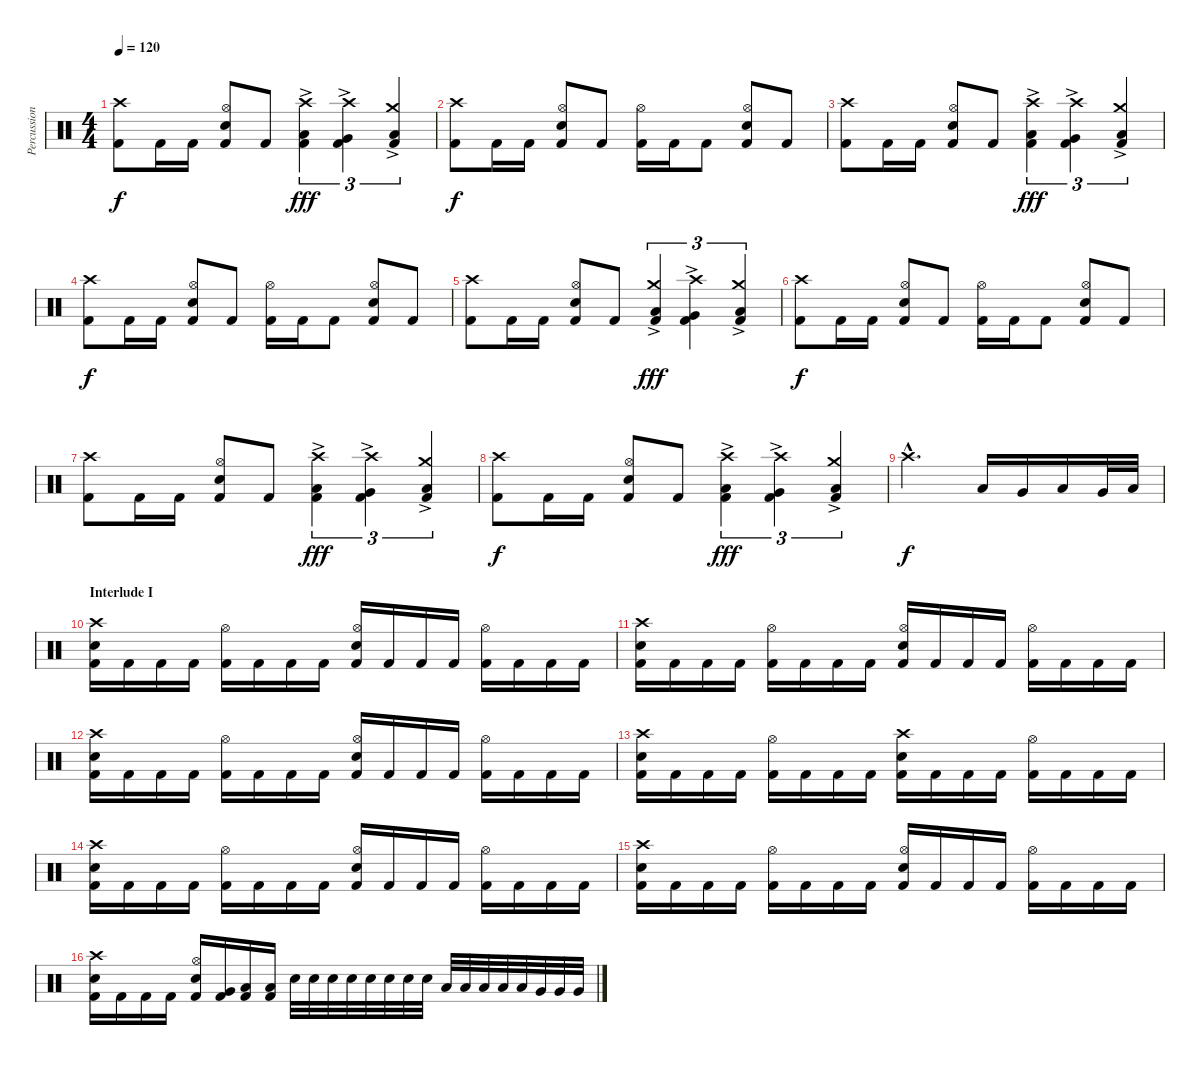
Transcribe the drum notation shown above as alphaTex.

\track ("Percussion" "Percussion") {instrument percussion}
\staff {score}
\articulation defaults
\ts (4 4)
\tempo 120
\clef neutral
\ks c
("Crash high (hit)" "Kick (hit) 2").8{dy f} "Kick (hit) 2".16 "Kick (hit) 2".16 ("Hi-Hat (open)" "Electric Snare (hit)" "Kick (hit) 2").8 "Kick (hit) 2".8 ("Crash high (hit)" "Low Floor Tom (hit)"{ac} "Kick (hit) 2").4{tu (3 2) dy fff} ("Crash high (hit)" "Very Low Tom (hit)"{ac} "Kick (hit) 2").4{tu (3 2)} ("Crash medium (hit)" "Low Tom (hit)"{ac} "Kick (hit) 2").4{tu (3 2)} |
("Crash high (hit)" "Kick (hit) 2").8{dy f} "Kick (hit) 2".16 "Kick (hit) 2".16 ("Hi-Hat (open)" "Electric Snare (hit)" "Kick (hit) 2").8 "Kick (hit) 2".8 ("Hi-Hat (open)" "Kick (hit) 2").16 "Kick (hit) 2".16 "Kick (hit) 2".8 ("Hi-Hat (open)" "Electric Snare (hit)" "Kick (hit) 2").8 "Kick (hit) 2".8 |
("Crash high (hit)" "Kick (hit) 2").8 "Kick (hit) 2".16 "Kick (hit) 2".16 ("Hi-Hat (open)" "Electric Snare (hit)" "Kick (hit) 2").8 "Kick (hit) 2".8 ("Crash high (hit)" "Low Floor Tom (hit)"{ac} "Kick (hit) 2").4{tu (3 2) dy fff} ("Crash high (hit)" "Very Low Tom (hit)"{ac} "Kick (hit) 2").4{tu (3 2)} ("Crash medium (hit)" "Low Tom (hit)"{ac} "Kick (hit) 2").4{tu (3 2)} |
("Crash high (hit)" "Kick (hit) 2").8{dy f} "Kick (hit) 2".16 "Kick (hit) 2".16 ("Hi-Hat (open)" "Electric Snare (hit)" "Kick (hit) 2").8 "Kick (hit) 2".8 ("Hi-Hat (open)" "Kick (hit) 2").16 "Kick (hit) 2".16 "Kick (hit) 2".8 ("Hi-Hat (open)" "Electric Snare (hit)" "Kick (hit) 2").8 "Kick (hit) 2".8 |
("Crash high (hit)" "Kick (hit) 2").8 "Kick (hit) 2".16 "Kick (hit) 2".16 ("Hi-Hat (open)" "Electric Snare (hit)" "Kick (hit) 2").8 "Kick (hit) 2".8 ("Crash medium (hit)" "Low Tom (hit)"{ac} "Kick (hit) 2").4{tu (3 2) dy fff} ("Crash high (hit)" "Very Low Tom (hit)"{ac} "Kick (hit) 2").4{tu (3 2)} ("Crash medium (hit)" "Low Tom (hit)"{ac} "Kick (hit) 2").4{tu (3 2)} |
("Crash high (hit)" "Kick (hit) 2").8{dy f} "Kick (hit) 2".16 "Kick (hit) 2".16 ("Hi-Hat (open)" "Electric Snare (hit)" "Kick (hit) 2").8 "Kick (hit) 2".8 ("Hi-Hat (open)" "Kick (hit) 2").16 "Kick (hit) 2".16 "Kick (hit) 2".8 ("Hi-Hat (open)" "Electric Snare (hit)" "Kick (hit) 2").8 "Kick (hit) 2".8 |
("Crash high (hit)" "Kick (hit) 2").8 "Kick (hit) 2".16 "Kick (hit) 2".16 ("Hi-Hat (open)" "Electric Snare (hit)" "Kick (hit) 2").8 "Kick (hit) 2".8 ("Crash high (hit)" "Low Floor Tom (hit)"{ac} "Kick (hit) 2").4{tu (3 2) dy fff} ("Crash high (hit)" "Very Low Tom (hit)"{ac} "Kick (hit) 2").4{tu (3 2)} ("Crash medium (hit)" "Low Tom (hit)"{ac} "Kick (hit) 2").4{tu (3 2)} |
("Crash high (hit)" "Kick (hit) 2").8{dy f} "Kick (hit) 2".16 "Kick (hit) 2".16 ("Hi-Hat (open)" "Electric Snare (hit)" "Kick (hit) 2").8 "Kick (hit) 2".8 ("Crash high (hit)" "Low Floor Tom (hit)"{ac} "Kick (hit) 2").4{tu (3 2) dy fff} ("Crash high (hit)" "Very Low Tom (hit)"{ac} "Kick (hit) 2").4{tu (3 2)} ("Crash medium (hit)" "Low Tom (hit)"{ac} "Kick (hit) 2").4{tu (3 2)} |
"Crash high (hit)"{hac}.2{d dy f} "Low Tom (hit)".16 "Very Low Tom (hit)".16 "Low Floor Tom (hit)".16 "Very Low Tom (hit)".32 "Low Tom (hit)".32 |
\section ("" "Interlude I")
("Crash high (hit)" "Electric Snare (hit)" "Kick (hit) 2").16 "Kick (hit) 2".16 "Kick (hit) 2".16 "Kick (hit) 2".16 ("Hi-Hat (open)" "Kick (hit) 2").16 "Kick (hit) 2".16 "Kick (hit) 2".16 "Kick (hit) 2".16 ("Hi-Hat (open)" "Electric Snare (hit)" "Kick (hit) 2").16 "Kick (hit) 2".16 "Kick (hit) 2".16 "Kick (hit) 2".16 ("Hi-Hat (open)" "Kick (hit) 2").16 "Kick (hit) 2".16 "Kick (hit) 2".16 "Kick (hit) 2".16 |
("Crash high (hit)" "Electric Snare (hit)" "Kick (hit) 2").16 "Kick (hit) 2".16 "Kick (hit) 2".16 "Kick (hit) 2".16 ("Hi-Hat (open)" "Kick (hit) 2").16 "Kick (hit) 2".16 "Kick (hit) 2".16 "Kick (hit) 2".16 ("Hi-Hat (open)" "Electric Snare (hit)" "Kick (hit) 2").16 "Kick (hit) 2".16 "Kick (hit) 2".16 "Kick (hit) 2".16 ("Hi-Hat (open)" "Kick (hit) 2").16 "Kick (hit) 2".16 "Kick (hit) 2".16 "Kick (hit) 2".16 |
("Crash high (hit)" "Electric Snare (hit)" "Kick (hit) 2").16 "Kick (hit) 2".16 "Kick (hit) 2".16 "Kick (hit) 2".16 ("Hi-Hat (open)" "Kick (hit) 2").16 "Kick (hit) 2".16 "Kick (hit) 2".16 "Kick (hit) 2".16 ("Hi-Hat (open)" "Electric Snare (hit)" "Kick (hit) 2").16 "Kick (hit) 2".16 "Kick (hit) 2".16 "Kick (hit) 2".16 ("Hi-Hat (open)" "Kick (hit) 2").16 "Kick (hit) 2".16 "Kick (hit) 2".16 "Kick (hit) 2".16 |
("Crash high (hit)" "Electric Snare (hit)" "Kick (hit) 2").16 "Kick (hit) 2".16 "Kick (hit) 2".16 "Kick (hit) 2".16 ("Hi-Hat (open)" "Kick (hit) 2").16 "Kick (hit) 2".16 "Kick (hit) 2".16 "Kick (hit) 2".16 ("Crash high (hit)" "Electric Snare (hit)" "Kick (hit) 2").16 "Kick (hit) 2".16 "Kick (hit) 2".16 "Kick (hit) 2".16 ("Hi-Hat (open)" "Kick (hit) 2").16 "Kick (hit) 2".16 "Kick (hit) 2".16 "Kick (hit) 2".16 |
("Crash high (hit)" "Electric Snare (hit)" "Kick (hit) 2").16 "Kick (hit) 2".16 "Kick (hit) 2".16 "Kick (hit) 2".16 ("Hi-Hat (open)" "Kick (hit) 2").16 "Kick (hit) 2".16 "Kick (hit) 2".16 "Kick (hit) 2".16 ("Hi-Hat (open)" "Electric Snare (hit)" "Kick (hit) 2").16 "Kick (hit) 2".16 "Kick (hit) 2".16 "Kick (hit) 2".16 ("Hi-Hat (open)" "Kick (hit) 2").16 "Kick (hit) 2".16 "Kick (hit) 2".16 "Kick (hit) 2".16 |
("Crash high (hit)" "Electric Snare (hit)" "Kick (hit) 2").16 "Kick (hit) 2".16 "Kick (hit) 2".16 "Kick (hit) 2".16 ("Hi-Hat (open)" "Kick (hit) 2").16 "Kick (hit) 2".16 "Kick (hit) 2".16 "Kick (hit) 2".16 ("Hi-Hat (open)" "Electric Snare (hit)" "Kick (hit) 2").16 "Kick (hit) 2".16 "Kick (hit) 2".16 "Kick (hit) 2".16 ("Hi-Hat (open)" "Kick (hit) 2").16 "Kick (hit) 2".16 "Kick (hit) 2".16 "Kick (hit) 2".16 |
("Crash high (hit)" "Electric Snare (hit)" "Kick (hit) 2").16 "Kick (hit) 2".16 "Kick (hit) 2".16 "Kick (hit) 2".16 ("Hi-Hat (open)" "Electric Snare (hit)" "Kick (hit) 2").16 ("Very Low Tom (hit)" "Kick (hit) 2").16 ("Low Floor Tom (hit)" "Kick (hit) 2").16 ("Low Floor Tom (hit)" "Kick (hit) 2").16 "Electric Snare (hit)".32 "Electric Snare (hit)".32 "Electric Snare (hit)".32 "Electric Snare (hit)".32 "Electric Snare (hit)".32 "Electric Snare (hit)".32 "Electric Snare (hit)".32 "Electric Snare (hit)".32 "Low Floor Tom (hit)".32 "Low Floor Tom (hit)".32 "Low Floor Tom (hit)".32 "Low Tom (hit)".32 "Low Tom (hit)".32 "Very Low Tom (hit)".32 "Very Low Tom (hit)".32 "Very Low Tom (hit)".32
